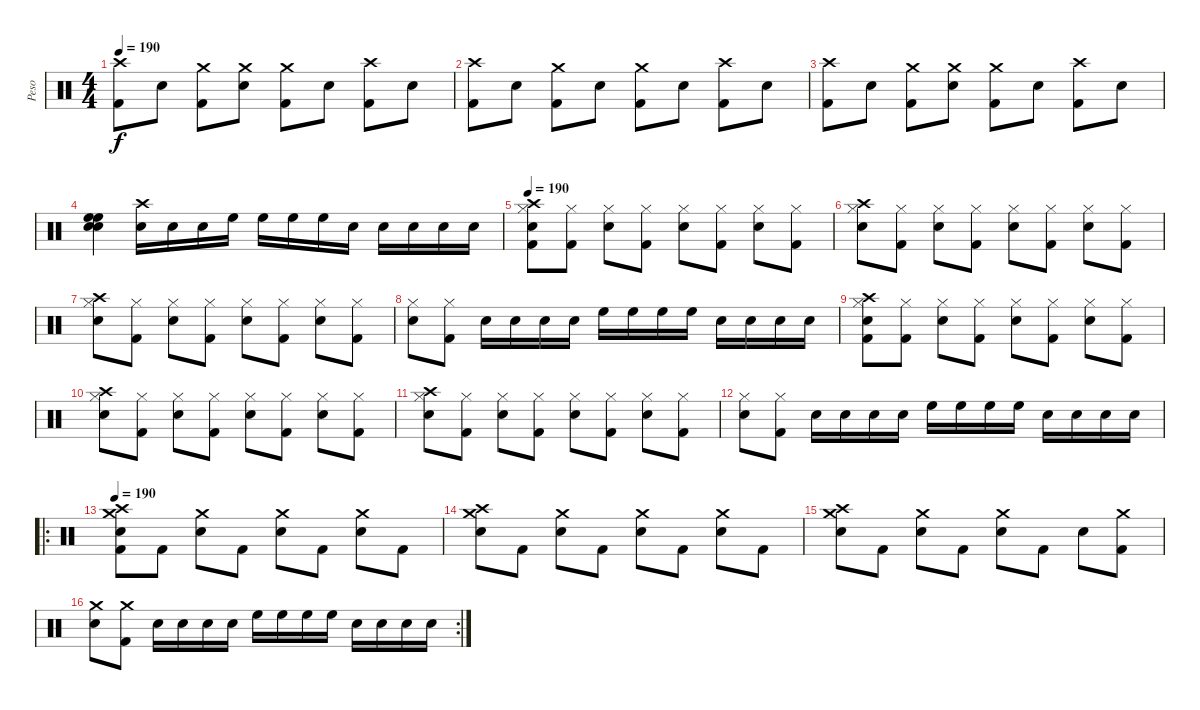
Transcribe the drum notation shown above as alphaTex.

\track ("Peso" "Peso") {instrument percussion}
\staff {score}
\articulation defaults
\ts (4 4)
\tempo 190
\clef neutral
\ks c
("Crash high (hit)" "Kick (hit) 2").8{dy f} "Snare (hit) 2".8 ("Crash medium (hit)" "Kick (hit) 2").8 ("Crash medium (hit)" "Snare (hit) 2").8 ("Crash medium (hit)" "Kick (hit) 2").8 "Snare (hit) 2".8 ("Crash high (hit)" "Kick (hit) 2").8 "Snare (hit) 2".8 |
("Crash high (hit)" "Kick (hit) 2").8 "Snare (hit) 2".8 ("Crash medium (hit)" "Kick (hit) 2").8 "Snare (hit) 2".8 ("Crash medium (hit)" "Kick (hit) 2").8 "Snare (hit) 2".8 ("Crash high (hit)" "Kick (hit) 2").8 "Snare (hit) 2".8 |
("Crash high (hit)" "Kick (hit) 2").8 "Snare (hit) 2".8 ("Crash medium (hit)" "Kick (hit) 2").8 ("Crash medium (hit)" "Snare (hit) 2").8 ("Crash medium (hit)" "Kick (hit) 2").8 "Snare (hit) 2".8 ("Crash high (hit)" "Kick (hit) 2").8 "Snare (hit) 2".8 |
("High Floor Tom (hit)" "High Floor Tom (hit)" "Snare (hit) 2" "Snare (hit) 2").4 ("Crash high (hit)" "Snare (hit) 2").16 "Snare (hit) 2".16 "Snare (hit) 2".16 "High Floor Tom (hit)".16 "High Floor Tom (hit)".16 "High Floor Tom (hit)".16 "High Floor Tom (hit)".16 "Snare (hit) 2".16 "Snare (hit) 2".16 "Snare (hit) 2".16 "Snare (hit) 2".16 "Snare (hit) 2".16 |
\tempo 190
("Crash high (hit)" "Hi-Hat (closed)" "Snare (hit) 2" "Kick (hit) 2").8 ("Hi-Hat (closed)" "Kick (hit) 2").8 ("Hi-Hat (closed)" "Snare (hit) 2").8 ("Hi-Hat (closed)" "Kick (hit) 2").8 ("Hi-Hat (closed)" "Snare (hit) 2").8 ("Hi-Hat (closed)" "Kick (hit) 2").8 ("Hi-Hat (closed)" "Snare (hit) 2").8 ("Hi-Hat (closed)" "Kick (hit) 2").8 |
("Crash high (hit)" "Hi-Hat (closed)" "Snare (hit) 2").8 ("Hi-Hat (closed)" "Kick (hit) 2").8 ("Hi-Hat (closed)" "Snare (hit) 2").8 ("Hi-Hat (closed)" "Kick (hit) 2").8 ("Hi-Hat (closed)" "Snare (hit) 2").8 ("Hi-Hat (closed)" "Kick (hit) 2").8 ("Hi-Hat (closed)" "Snare (hit) 2").8 ("Hi-Hat (closed)" "Kick (hit) 2").8 |
("Crash high (hit)" "Hi-Hat (closed)" "Snare (hit) 2").8 ("Hi-Hat (closed)" "Kick (hit) 2").8 ("Hi-Hat (closed)" "Snare (hit) 2").8 ("Hi-Hat (closed)" "Kick (hit) 2").8 ("Hi-Hat (closed)" "Snare (hit) 2").8 ("Hi-Hat (closed)" "Kick (hit) 2").8 ("Hi-Hat (closed)" "Snare (hit) 2").8 ("Hi-Hat (closed)" "Kick (hit) 2").8 |
("Hi-Hat (closed)" "Snare (hit) 2").8 ("Hi-Hat (closed)" "Kick (hit) 2").8 "Snare (hit) 2".16 "Snare (hit) 2".16 "Snare (hit) 2".16 "Snare (hit) 2".16 "High Floor Tom (hit)".16 "High Floor Tom (hit)".16 "High Floor Tom (hit)".16 "High Floor Tom (hit)".16 "Snare (hit) 2".16 "Snare (hit) 2".16 "Snare (hit) 2".16 "Snare (hit) 2".16 |
("Crash high (hit)" "Hi-Hat (closed)" "Snare (hit) 2" "Kick (hit) 2").8 ("Hi-Hat (closed)" "Kick (hit) 2").8 ("Hi-Hat (closed)" "Snare (hit) 2").8 ("Hi-Hat (closed)" "Kick (hit) 2").8 ("Hi-Hat (closed)" "Snare (hit) 2").8 ("Hi-Hat (closed)" "Kick (hit) 2").8 ("Hi-Hat (closed)" "Snare (hit) 2").8 ("Hi-Hat (closed)" "Kick (hit) 2").8 |
("Crash high (hit)" "Hi-Hat (closed)" "Snare (hit) 2").8 ("Hi-Hat (closed)" "Kick (hit) 2").8 ("Hi-Hat (closed)" "Snare (hit) 2").8 ("Hi-Hat (closed)" "Kick (hit) 2").8 ("Hi-Hat (closed)" "Snare (hit) 2").8 ("Hi-Hat (closed)" "Kick (hit) 2").8 ("Hi-Hat (closed)" "Snare (hit) 2").8 ("Hi-Hat (closed)" "Kick (hit) 2").8 |
("Crash high (hit)" "Hi-Hat (closed)" "Snare (hit) 2").8 ("Hi-Hat (closed)" "Kick (hit) 2").8 ("Hi-Hat (closed)" "Snare (hit) 2").8 ("Hi-Hat (closed)" "Kick (hit) 2").8 ("Hi-Hat (closed)" "Snare (hit) 2").8 ("Hi-Hat (closed)" "Kick (hit) 2").8 ("Hi-Hat (closed)" "Snare (hit) 2").8 ("Hi-Hat (closed)" "Kick (hit) 2").8 |
("Hi-Hat (closed)" "Snare (hit) 2").8 ("Hi-Hat (closed)" "Kick (hit) 2").8 "Snare (hit) 2".16 "Snare (hit) 2".16 "Snare (hit) 2".16 "Snare (hit) 2".16 "High Floor Tom (hit)".16 "High Floor Tom (hit)".16 "High Floor Tom (hit)".16 "High Floor Tom (hit)".16 "Snare (hit) 2".16 "Snare (hit) 2".16 "Snare (hit) 2".16 "Snare (hit) 2".16 |
\ro
\tempo 190
("Crash high (hit)" "Crash medium (hit)" "Snare (hit) 2" "Kick (hit) 2").8 "Kick (hit) 2".8 ("Crash medium (hit)" "Snare (hit) 2").8 "Kick (hit) 2".8 ("Crash medium (hit)" "Snare (hit) 2").8 "Kick (hit) 2".8 ("Crash medium (hit)" "Snare (hit) 2").8 "Kick (hit) 2".8 |
("Crash high (hit)" "Crash medium (hit)" "Snare (hit) 2").8 "Kick (hit) 2".8 ("Crash medium (hit)" "Snare (hit) 2").8 "Kick (hit) 2".8 ("Crash medium (hit)" "Snare (hit) 2").8 "Kick (hit) 2".8 ("Crash medium (hit)" "Snare (hit) 2").8 "Kick (hit) 2".8 |
("Crash high (hit)" "Crash medium (hit)" "Snare (hit) 2").8 "Kick (hit) 2".8 ("Crash medium (hit)" "Snare (hit) 2").8 "Kick (hit) 2".8 ("Crash medium (hit)" "Snare (hit) 2").8 "Kick (hit) 2".8 "Snare (hit) 2".8 ("Crash medium (hit)" "Kick (hit) 2").8 |
\rc 2
("Crash medium (hit)" "Snare (hit) 2").8 ("Crash medium (hit)" "Kick (hit) 2").8 "Snare (hit) 2".16 "Snare (hit) 2".16 "Snare (hit) 2".16 "Snare (hit) 2".16 "High Floor Tom (hit)".16 "High Floor Tom (hit)".16 "High Floor Tom (hit)".16 "High Floor Tom (hit)".16 "Snare (hit) 2".16 "Snare (hit) 2".16 "Snare (hit) 2".16 "Snare (hit) 2".16
